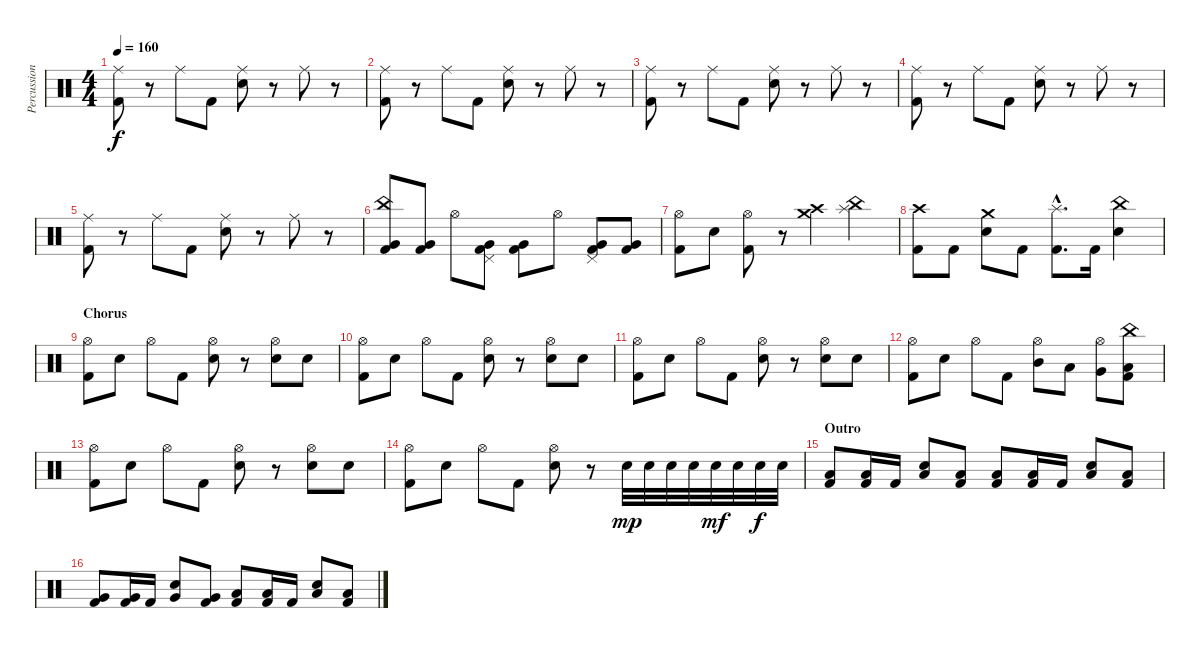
\track ("Percussion" "Percussion") {instrument percussion}
\staff {score}
\articulation defaults
\ts (4 4)
\tempo 160
\clef neutral
\ks c
("Ride (middle)" "Kick (hit) 2").8{dy f} r.8 "Ride (middle)".8 "Kick (hit) 2".8 ("Ride (middle)" "Snare (hit) 2").8 r.8 "Ride (middle)".8 r.8 |
("Ride (middle)" "Kick (hit) 2").8 r.8 "Ride (middle)".8 "Kick (hit) 2".8 ("Ride (middle)" "Snare (hit) 2").8 r.8 "Ride (middle)".8 r.8 |
("Ride (middle)" "Kick (hit) 2").8 r.8 "Ride (middle)".8 "Kick (hit) 2".8 ("Ride (middle)" "Snare (hit) 2").8 r.8 "Ride (middle)".8 r.8 |
("Ride (middle)" "Kick (hit) 2").8 r.8 "Ride (middle)".8 "Kick (hit) 2".8 ("Ride (middle)" "Snare (hit) 2").8 r.8 "Ride (middle)".8 r.8 |
("Ride (middle)" "Kick (hit) 2").8 r.8 "Ride (middle)".8 "Kick (hit) 2".8 ("Ride (middle)" "Snare (hit) 2").8 r.8 "Ride (middle)".8 r.8 |
("China (hit)" "Very Low Tom (hit)" "Kick (hit) 2").8 ("Very Low Tom (hit)" "Kick (hit) 2").8 "Hi-Hat (open)".8 ("Pedal Hi-Hat (hit)" "Very Low Tom (hit)" "Kick (hit) 2").8 ("Very Low Tom (hit)" "Kick (hit) 2").8 "Hi-Hat (open)".8 ("Pedal Hi-Hat (hit)" "Very Low Tom (hit)" "Kick (hit) 2").8 ("Very Low Tom (hit)" "Kick (hit) 2").8 |
("Hi-Hat (open)" "Kick (hit) 2").8 "Snare (hit) 2".8 ("Hi-Hat (open)" "Kick (hit) 2").8 r.8 ("Crash high (hit)" "Crash medium (hit)").4 ("China (hit)" "Splash (hit)").4 |
("Crash high (hit)" "Kick (hit) 2").8 "Kick (hit) 2".8 ("Crash medium (hit)" "Electric Snare (hit)").8 "Kick (hit) 2".8 ("Splash (hit)"{hac} "Kick (hit) 2"{hac}).8{d} "Kick (hit) 2".16 ("China (hit)" "Electric Snare (hit)").4 |
\section ("" "Chorus")
("Hi-Hat (open)" "Kick (hit) 2").8 "Snare (hit) 2".8 "Hi-Hat (open)".8 "Kick (hit) 2".8 ("Hi-Hat (open)" "Snare (hit) 2").8 r.8 ("Hi-Hat (open)" "Snare (hit) 2").8 "Snare (hit) 2".8 |
("Hi-Hat (open)" "Kick (hit) 2").8 "Snare (hit) 2".8 "Hi-Hat (open)".8 "Kick (hit) 2".8 ("Hi-Hat (open)" "Snare (hit) 2").8 r.8 ("Hi-Hat (open)" "Snare (hit) 2").8 "Snare (hit) 2".8 |
("Hi-Hat (open)" "Kick (hit) 2").8 "Snare (hit) 2".8 "Hi-Hat (open)".8 "Kick (hit) 2".8 ("Hi-Hat (open)" "Snare (hit) 2").8 r.8 ("Hi-Hat (open)" "Snare (hit) 2").8 "Snare (hit) 2".8 |
("Hi-Hat (open)" "Kick (hit) 2").8 "Snare (hit) 2".8 "Hi-Hat (open)".8 "Kick (hit) 2".8 ("Hi-Hat (open)" "Mid Tom (hit)").8 "Low Tom (hit)".8 ("Hi-Hat (open)" "Very Low Tom (hit)").8 ("China (hit)" "Low Floor Tom (hit)" "Kick (hit) 2").8 |
("Hi-Hat (open)" "Kick (hit) 2").8 "Snare (hit) 2".8 "Hi-Hat (open)".8 "Kick (hit) 2".8 ("Hi-Hat (open)" "Snare (hit) 2").8 r.8 ("Hi-Hat (open)" "Snare (hit) 2").8 "Snare (hit) 2".8 |
("Hi-Hat (open)" "Kick (hit) 2").8 "Snare (hit) 2".8 "Hi-Hat (open)".8 "Kick (hit) 2".8 ("Hi-Hat (open)" "Snare (hit) 2").8 r.8 "Snare (hit) 2".32{dy mp} "Snare (hit) 2".32 "Snare (hit) 2".32 "Snare (hit) 2".32 "Snare (hit) 2".32{dy mf} "Snare (hit) 2".32 "Snare (hit) 2".32{dy f} "Snare (hit) 2".32 |
\section ("" "Outro")
("Low Tom (hit)" "Kick (hit) 2").8 ("Low Tom (hit)" "Kick (hit) 2").16 "Kick (hit) 2".16 ("Low Tom (hit)" "Electric Snare (hit)").8 ("Low Tom (hit)" "Kick (hit) 2").8 ("Low Tom (hit)" "Kick (hit) 2").8 ("Low Tom (hit)" "Kick (hit) 2").16 "Kick (hit) 2".16 ("Low Tom (hit)" "Electric Snare (hit)").8 ("Low Tom (hit)" "Kick (hit) 2").8 |
("Very Low Tom (hit)" "Kick (hit) 2").8 ("Very Low Tom (hit)" "Kick (hit) 2").16 "Kick (hit) 2".16 ("Very Low Tom (hit)" "Electric Snare (hit)").8 ("Very Low Tom (hit)" "Kick (hit) 2").8 ("Low Floor Tom (hit)" "Kick (hit) 2").8 ("Low Floor Tom (hit)" "Kick (hit) 2").16 "Kick (hit) 2".16 ("Low Floor Tom (hit)" "Electric Snare (hit)").8 ("Low Floor Tom (hit)" "Kick (hit) 2").8
